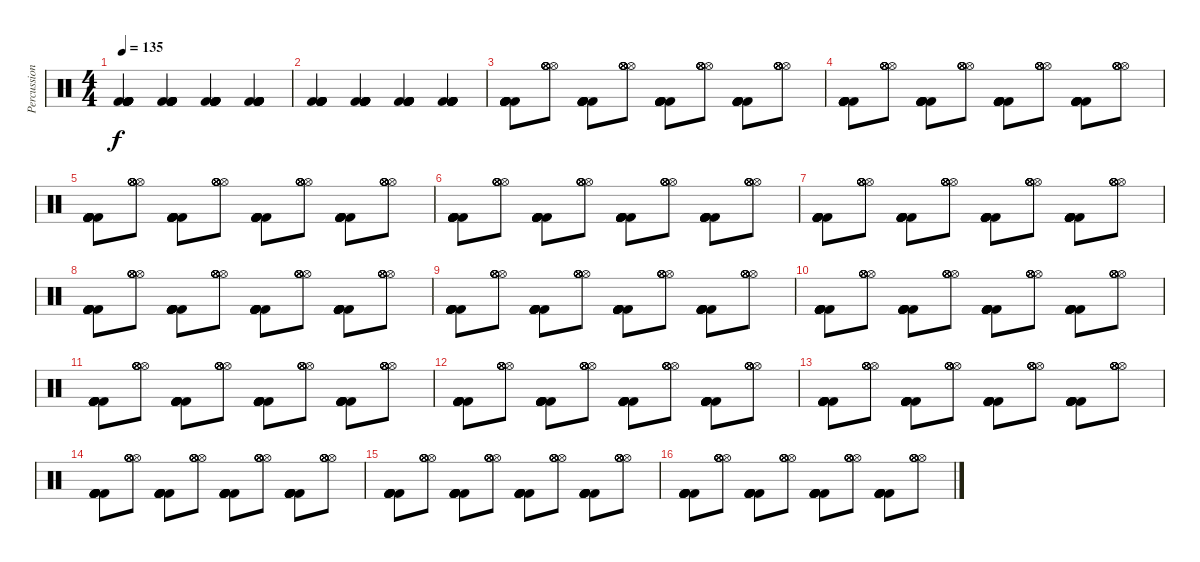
\track ("Percussion" "Percussion") {instrument percussion}
\staff {score}
\articulation defaults
\ts (4 4)
\tempo 135
\clef neutral
\ks c
("Kick (hit) 2" "Kick (hit) 2" "Kick (hit) 2" "Kick (hit) 2" "Kick (hit) 2" "Kick (hit) 2").4{dy f} ("Kick (hit) 2" "Kick (hit) 2" "Kick (hit) 2" "Kick (hit) 2" "Kick (hit) 2" "Kick (hit) 2").4 ("Kick (hit) 2" "Kick (hit) 2" "Kick (hit) 2" "Kick (hit) 2" "Kick (hit) 2" "Kick (hit) 2").4 ("Kick (hit) 2" "Kick (hit) 2" "Kick (hit) 2" "Kick (hit) 2" "Kick (hit) 2" "Kick (hit) 2").4 |
("Kick (hit) 2" "Kick (hit) 2" "Kick (hit) 2" "Kick (hit) 2" "Kick (hit) 2" "Kick (hit) 2").4 ("Kick (hit) 2" "Kick (hit) 2" "Kick (hit) 2" "Kick (hit) 2" "Kick (hit) 2" "Kick (hit) 2").4 ("Kick (hit) 2" "Kick (hit) 2" "Kick (hit) 2" "Kick (hit) 2" "Kick (hit) 2" "Kick (hit) 2").4 ("Kick (hit) 2" "Kick (hit) 2" "Kick (hit) 2" "Kick (hit) 2" "Kick (hit) 2" "Kick (hit) 2").4 |
("Kick (hit) 2" "Kick (hit) 2" "Kick (hit) 2" "Kick (hit) 2" "Kick (hit) 2" "Kick (hit) 2").8 ("Hi-Hat (open)" "Hi-Hat (open)" "Hi-Hat (open)" "Hi-Hat (open)" "Hi-Hat (open)" "Hi-Hat (open)").8 ("Kick (hit) 2" "Kick (hit) 2" "Kick (hit) 2" "Kick (hit) 2" "Kick (hit) 2" "Kick (hit) 2").8 ("Hi-Hat (open)" "Hi-Hat (open)" "Hi-Hat (open)" "Hi-Hat (open)" "Hi-Hat (open)" "Hi-Hat (open)").8 ("Kick (hit) 2" "Kick (hit) 2" "Kick (hit) 2" "Kick (hit) 2" "Kick (hit) 2" "Kick (hit) 2").8 ("Hi-Hat (open)" "Hi-Hat (open)" "Hi-Hat (open)" "Hi-Hat (open)" "Hi-Hat (open)" "Hi-Hat (open)").8 ("Kick (hit) 2" "Kick (hit) 2" "Kick (hit) 2" "Kick (hit) 2" "Kick (hit) 2" "Kick (hit) 2").8 ("Hi-Hat (open)" "Hi-Hat (open)" "Hi-Hat (open)" "Hi-Hat (open)" "Hi-Hat (open)" "Hi-Hat (open)").8 |
("Kick (hit) 2" "Kick (hit) 2" "Kick (hit) 2" "Kick (hit) 2" "Kick (hit) 2" "Kick (hit) 2").8 ("Hi-Hat (open)" "Hi-Hat (open)" "Hi-Hat (open)" "Hi-Hat (open)" "Hi-Hat (open)" "Hi-Hat (open)").8 ("Kick (hit) 2" "Kick (hit) 2" "Kick (hit) 2" "Kick (hit) 2" "Kick (hit) 2" "Kick (hit) 2").8 ("Hi-Hat (open)" "Hi-Hat (open)" "Hi-Hat (open)" "Hi-Hat (open)" "Hi-Hat (open)" "Hi-Hat (open)").8 ("Kick (hit) 2" "Kick (hit) 2" "Kick (hit) 2" "Kick (hit) 2" "Kick (hit) 2" "Kick (hit) 2").8 ("Hi-Hat (open)" "Hi-Hat (open)" "Hi-Hat (open)" "Hi-Hat (open)" "Hi-Hat (open)" "Hi-Hat (open)").8 ("Kick (hit) 2" "Kick (hit) 2" "Kick (hit) 2" "Kick (hit) 2" "Kick (hit) 2" "Kick (hit) 2").8 ("Hi-Hat (open)" "Hi-Hat (open)" "Hi-Hat (open)" "Hi-Hat (open)" "Hi-Hat (open)" "Hi-Hat (open)").8 |
("Kick (hit) 2" "Kick (hit) 2" "Kick (hit) 2" "Kick (hit) 2" "Kick (hit) 2" "Kick (hit) 2").8 ("Hi-Hat (open)" "Hi-Hat (open)" "Hi-Hat (open)" "Hi-Hat (open)" "Hi-Hat (open)" "Hi-Hat (open)").8 ("Kick (hit) 2" "Kick (hit) 2" "Kick (hit) 2" "Kick (hit) 2" "Kick (hit) 2" "Kick (hit) 2").8 ("Hi-Hat (open)" "Hi-Hat (open)" "Hi-Hat (open)" "Hi-Hat (open)" "Hi-Hat (open)" "Hi-Hat (open)").8 ("Kick (hit) 2" "Kick (hit) 2" "Kick (hit) 2" "Kick (hit) 2" "Kick (hit) 2" "Kick (hit) 2").8 ("Hi-Hat (open)" "Hi-Hat (open)" "Hi-Hat (open)" "Hi-Hat (open)" "Hi-Hat (open)" "Hi-Hat (open)").8 ("Kick (hit) 2" "Kick (hit) 2" "Kick (hit) 2" "Kick (hit) 2" "Kick (hit) 2" "Kick (hit) 2").8 ("Hi-Hat (open)" "Hi-Hat (open)" "Hi-Hat (open)" "Hi-Hat (open)" "Hi-Hat (open)" "Hi-Hat (open)").8 |
("Kick (hit) 2" "Kick (hit) 2" "Kick (hit) 2" "Kick (hit) 2" "Kick (hit) 2" "Kick (hit) 2").8 ("Hi-Hat (open)" "Hi-Hat (open)" "Hi-Hat (open)" "Hi-Hat (open)" "Hi-Hat (open)" "Hi-Hat (open)").8 ("Kick (hit) 2" "Kick (hit) 2" "Kick (hit) 2" "Kick (hit) 2" "Kick (hit) 2" "Kick (hit) 2").8 ("Hi-Hat (open)" "Hi-Hat (open)" "Hi-Hat (open)" "Hi-Hat (open)" "Hi-Hat (open)" "Hi-Hat (open)").8 ("Kick (hit) 2" "Kick (hit) 2" "Kick (hit) 2" "Kick (hit) 2" "Kick (hit) 2" "Kick (hit) 2").8 ("Hi-Hat (open)" "Hi-Hat (open)" "Hi-Hat (open)" "Hi-Hat (open)" "Hi-Hat (open)" "Hi-Hat (open)").8 ("Kick (hit) 2" "Kick (hit) 2" "Kick (hit) 2" "Kick (hit) 2" "Kick (hit) 2" "Kick (hit) 2").8 ("Hi-Hat (open)" "Hi-Hat (open)" "Hi-Hat (open)" "Hi-Hat (open)" "Hi-Hat (open)" "Hi-Hat (open)").8 |
("Kick (hit) 2" "Kick (hit) 2" "Kick (hit) 2" "Kick (hit) 2" "Kick (hit) 2" "Kick (hit) 2").8 ("Hi-Hat (open)" "Hi-Hat (open)" "Hi-Hat (open)" "Hi-Hat (open)" "Hi-Hat (open)" "Hi-Hat (open)").8 ("Kick (hit) 2" "Kick (hit) 2" "Kick (hit) 2" "Kick (hit) 2" "Kick (hit) 2" "Kick (hit) 2").8 ("Hi-Hat (open)" "Hi-Hat (open)" "Hi-Hat (open)" "Hi-Hat (open)" "Hi-Hat (open)" "Hi-Hat (open)").8 ("Kick (hit) 2" "Kick (hit) 2" "Kick (hit) 2" "Kick (hit) 2" "Kick (hit) 2" "Kick (hit) 2").8 ("Hi-Hat (open)" "Hi-Hat (open)" "Hi-Hat (open)" "Hi-Hat (open)" "Hi-Hat (open)" "Hi-Hat (open)").8 ("Kick (hit) 2" "Kick (hit) 2" "Kick (hit) 2" "Kick (hit) 2" "Kick (hit) 2" "Kick (hit) 2").8 ("Hi-Hat (open)" "Hi-Hat (open)" "Hi-Hat (open)" "Hi-Hat (open)" "Hi-Hat (open)" "Hi-Hat (open)").8 |
("Kick (hit) 2" "Kick (hit) 2" "Kick (hit) 2" "Kick (hit) 2" "Kick (hit) 2" "Kick (hit) 2").8 ("Hi-Hat (open)" "Hi-Hat (open)" "Hi-Hat (open)" "Hi-Hat (open)" "Hi-Hat (open)" "Hi-Hat (open)").8 ("Kick (hit) 2" "Kick (hit) 2" "Kick (hit) 2" "Kick (hit) 2" "Kick (hit) 2" "Kick (hit) 2").8 ("Hi-Hat (open)" "Hi-Hat (open)" "Hi-Hat (open)" "Hi-Hat (open)" "Hi-Hat (open)" "Hi-Hat (open)").8 ("Kick (hit) 2" "Kick (hit) 2" "Kick (hit) 2" "Kick (hit) 2" "Kick (hit) 2" "Kick (hit) 2").8 ("Hi-Hat (open)" "Hi-Hat (open)" "Hi-Hat (open)" "Hi-Hat (open)" "Hi-Hat (open)" "Hi-Hat (open)").8 ("Kick (hit) 2" "Kick (hit) 2" "Kick (hit) 2" "Kick (hit) 2" "Kick (hit) 2" "Kick (hit) 2").8 ("Hi-Hat (open)" "Hi-Hat (open)" "Hi-Hat (open)" "Hi-Hat (open)" "Hi-Hat (open)" "Hi-Hat (open)").8 |
("Kick (hit) 2" "Kick (hit) 2" "Kick (hit) 2" "Kick (hit) 2" "Kick (hit) 2" "Kick (hit) 2").8 ("Hi-Hat (open)" "Hi-Hat (open)" "Hi-Hat (open)" "Hi-Hat (open)" "Hi-Hat (open)" "Hi-Hat (open)").8 ("Kick (hit) 2" "Kick (hit) 2" "Kick (hit) 2" "Kick (hit) 2" "Kick (hit) 2" "Kick (hit) 2").8 ("Hi-Hat (open)" "Hi-Hat (open)" "Hi-Hat (open)" "Hi-Hat (open)" "Hi-Hat (open)" "Hi-Hat (open)").8 ("Kick (hit) 2" "Kick (hit) 2" "Kick (hit) 2" "Kick (hit) 2" "Kick (hit) 2" "Kick (hit) 2").8 ("Hi-Hat (open)" "Hi-Hat (open)" "Hi-Hat (open)" "Hi-Hat (open)" "Hi-Hat (open)" "Hi-Hat (open)").8 ("Kick (hit) 2" "Kick (hit) 2" "Kick (hit) 2" "Kick (hit) 2" "Kick (hit) 2" "Kick (hit) 2").8 ("Hi-Hat (open)" "Hi-Hat (open)" "Hi-Hat (open)" "Hi-Hat (open)" "Hi-Hat (open)" "Hi-Hat (open)").8 |
("Kick (hit) 2" "Kick (hit) 2" "Kick (hit) 2" "Kick (hit) 2" "Kick (hit) 2" "Kick (hit) 2").8 ("Hi-Hat (open)" "Hi-Hat (open)" "Hi-Hat (open)" "Hi-Hat (open)" "Hi-Hat (open)" "Hi-Hat (open)").8 ("Kick (hit) 2" "Kick (hit) 2" "Kick (hit) 2" "Kick (hit) 2" "Kick (hit) 2" "Kick (hit) 2").8 ("Hi-Hat (open)" "Hi-Hat (open)" "Hi-Hat (open)" "Hi-Hat (open)" "Hi-Hat (open)" "Hi-Hat (open)").8 ("Kick (hit) 2" "Kick (hit) 2" "Kick (hit) 2" "Kick (hit) 2" "Kick (hit) 2" "Kick (hit) 2").8 ("Hi-Hat (open)" "Hi-Hat (open)" "Hi-Hat (open)" "Hi-Hat (open)" "Hi-Hat (open)" "Hi-Hat (open)").8 ("Kick (hit) 2" "Kick (hit) 2" "Kick (hit) 2" "Kick (hit) 2" "Kick (hit) 2" "Kick (hit) 2").8 ("Hi-Hat (open)" "Hi-Hat (open)" "Hi-Hat (open)" "Hi-Hat (open)" "Hi-Hat (open)" "Hi-Hat (open)").8 |
("Kick (hit) 2" "Kick (hit) 2" "Kick (hit) 2" "Kick (hit) 2" "Kick (hit) 2" "Kick (hit) 2").8 ("Hi-Hat (open)" "Hi-Hat (open)" "Hi-Hat (open)" "Hi-Hat (open)" "Hi-Hat (open)" "Hi-Hat (open)").8 ("Kick (hit) 2" "Kick (hit) 2" "Kick (hit) 2" "Kick (hit) 2" "Kick (hit) 2" "Kick (hit) 2").8 ("Hi-Hat (open)" "Hi-Hat (open)" "Hi-Hat (open)" "Hi-Hat (open)" "Hi-Hat (open)" "Hi-Hat (open)").8 ("Kick (hit) 2" "Kick (hit) 2" "Kick (hit) 2" "Kick (hit) 2" "Kick (hit) 2" "Kick (hit) 2").8 ("Hi-Hat (open)" "Hi-Hat (open)" "Hi-Hat (open)" "Hi-Hat (open)" "Hi-Hat (open)" "Hi-Hat (open)").8 ("Kick (hit) 2" "Kick (hit) 2" "Kick (hit) 2" "Kick (hit) 2" "Kick (hit) 2" "Kick (hit) 2").8 ("Hi-Hat (open)" "Hi-Hat (open)" "Hi-Hat (open)" "Hi-Hat (open)" "Hi-Hat (open)" "Hi-Hat (open)").8 |
("Kick (hit) 2" "Kick (hit) 2" "Kick (hit) 2" "Kick (hit) 2" "Kick (hit) 2" "Kick (hit) 2").8 ("Hi-Hat (open)" "Hi-Hat (open)" "Hi-Hat (open)" "Hi-Hat (open)" "Hi-Hat (open)" "Hi-Hat (open)").8 ("Kick (hit) 2" "Kick (hit) 2" "Kick (hit) 2" "Kick (hit) 2" "Kick (hit) 2" "Kick (hit) 2").8 ("Hi-Hat (open)" "Hi-Hat (open)" "Hi-Hat (open)" "Hi-Hat (open)" "Hi-Hat (open)" "Hi-Hat (open)").8 ("Kick (hit) 2" "Kick (hit) 2" "Kick (hit) 2" "Kick (hit) 2" "Kick (hit) 2" "Kick (hit) 2").8 ("Hi-Hat (open)" "Hi-Hat (open)" "Hi-Hat (open)" "Hi-Hat (open)" "Hi-Hat (open)" "Hi-Hat (open)").8 ("Kick (hit) 2" "Kick (hit) 2" "Kick (hit) 2" "Kick (hit) 2" "Kick (hit) 2" "Kick (hit) 2").8 ("Hi-Hat (open)" "Hi-Hat (open)" "Hi-Hat (open)" "Hi-Hat (open)" "Hi-Hat (open)" "Hi-Hat (open)").8 |
("Kick (hit) 2" "Kick (hit) 2" "Kick (hit) 2" "Kick (hit) 2" "Kick (hit) 2" "Kick (hit) 2").8 ("Hi-Hat (open)" "Hi-Hat (open)" "Hi-Hat (open)" "Hi-Hat (open)" "Hi-Hat (open)" "Hi-Hat (open)").8 ("Kick (hit) 2" "Kick (hit) 2" "Kick (hit) 2" "Kick (hit) 2" "Kick (hit) 2" "Kick (hit) 2").8 ("Hi-Hat (open)" "Hi-Hat (open)" "Hi-Hat (open)" "Hi-Hat (open)" "Hi-Hat (open)" "Hi-Hat (open)").8 ("Kick (hit) 2" "Kick (hit) 2" "Kick (hit) 2" "Kick (hit) 2" "Kick (hit) 2" "Kick (hit) 2").8 ("Hi-Hat (open)" "Hi-Hat (open)" "Hi-Hat (open)" "Hi-Hat (open)" "Hi-Hat (open)" "Hi-Hat (open)").8 ("Kick (hit) 2" "Kick (hit) 2" "Kick (hit) 2" "Kick (hit) 2" "Kick (hit) 2" "Kick (hit) 2").8 ("Hi-Hat (open)" "Hi-Hat (open)" "Hi-Hat (open)" "Hi-Hat (open)" "Hi-Hat (open)" "Hi-Hat (open)").8 |
("Kick (hit) 2" "Kick (hit) 2" "Kick (hit) 2" "Kick (hit) 2" "Kick (hit) 2" "Kick (hit) 2").8 ("Hi-Hat (open)" "Hi-Hat (open)" "Hi-Hat (open)" "Hi-Hat (open)" "Hi-Hat (open)" "Hi-Hat (open)").8 ("Kick (hit) 2" "Kick (hit) 2" "Kick (hit) 2" "Kick (hit) 2" "Kick (hit) 2" "Kick (hit) 2").8 ("Hi-Hat (open)" "Hi-Hat (open)" "Hi-Hat (open)" "Hi-Hat (open)" "Hi-Hat (open)" "Hi-Hat (open)").8 ("Kick (hit) 2" "Kick (hit) 2" "Kick (hit) 2" "Kick (hit) 2" "Kick (hit) 2" "Kick (hit) 2").8 ("Hi-Hat (open)" "Hi-Hat (open)" "Hi-Hat (open)" "Hi-Hat (open)" "Hi-Hat (open)" "Hi-Hat (open)").8 ("Kick (hit) 2" "Kick (hit) 2" "Kick (hit) 2" "Kick (hit) 2" "Kick (hit) 2" "Kick (hit) 2").8 ("Hi-Hat (open)" "Hi-Hat (open)" "Hi-Hat (open)" "Hi-Hat (open)" "Hi-Hat (open)" "Hi-Hat (open)").8 |
("Kick (hit) 2" "Kick (hit) 2" "Kick (hit) 2" "Kick (hit) 2" "Kick (hit) 2" "Kick (hit) 2").8 ("Hi-Hat (open)" "Hi-Hat (open)" "Hi-Hat (open)" "Hi-Hat (open)" "Hi-Hat (open)" "Hi-Hat (open)").8 ("Kick (hit) 2" "Kick (hit) 2" "Kick (hit) 2" "Kick (hit) 2" "Kick (hit) 2" "Kick (hit) 2").8 ("Hi-Hat (open)" "Hi-Hat (open)" "Hi-Hat (open)" "Hi-Hat (open)" "Hi-Hat (open)" "Hi-Hat (open)").8 ("Kick (hit) 2" "Kick (hit) 2" "Kick (hit) 2" "Kick (hit) 2" "Kick (hit) 2" "Kick (hit) 2").8 ("Hi-Hat (open)" "Hi-Hat (open)" "Hi-Hat (open)" "Hi-Hat (open)" "Hi-Hat (open)" "Hi-Hat (open)").8 ("Kick (hit) 2" "Kick (hit) 2" "Kick (hit) 2" "Kick (hit) 2" "Kick (hit) 2" "Kick (hit) 2").8 ("Hi-Hat (open)" "Hi-Hat (open)" "Hi-Hat (open)" "Hi-Hat (open)" "Hi-Hat (open)" "Hi-Hat (open)").8 |
("Kick (hit) 2" "Kick (hit) 2" "Kick (hit) 2" "Kick (hit) 2" "Kick (hit) 2" "Kick (hit) 2").8 ("Hi-Hat (open)" "Hi-Hat (open)" "Hi-Hat (open)" "Hi-Hat (open)" "Hi-Hat (open)" "Hi-Hat (open)").8 ("Kick (hit) 2" "Kick (hit) 2" "Kick (hit) 2" "Kick (hit) 2" "Kick (hit) 2" "Kick (hit) 2").8 ("Hi-Hat (open)" "Hi-Hat (open)" "Hi-Hat (open)" "Hi-Hat (open)" "Hi-Hat (open)" "Hi-Hat (open)").8 ("Kick (hit) 2" "Kick (hit) 2" "Kick (hit) 2" "Kick (hit) 2" "Kick (hit) 2" "Kick (hit) 2").8 ("Hi-Hat (open)" "Hi-Hat (open)" "Hi-Hat (open)" "Hi-Hat (open)" "Hi-Hat (open)" "Hi-Hat (open)").8 ("Kick (hit) 2" "Kick (hit) 2" "Kick (hit) 2" "Kick (hit) 2" "Kick (hit) 2" "Kick (hit) 2").8 ("Hi-Hat (open)" "Hi-Hat (open)" "Hi-Hat (open)" "Hi-Hat (open)" "Hi-Hat (open)" "Hi-Hat (open)").8
